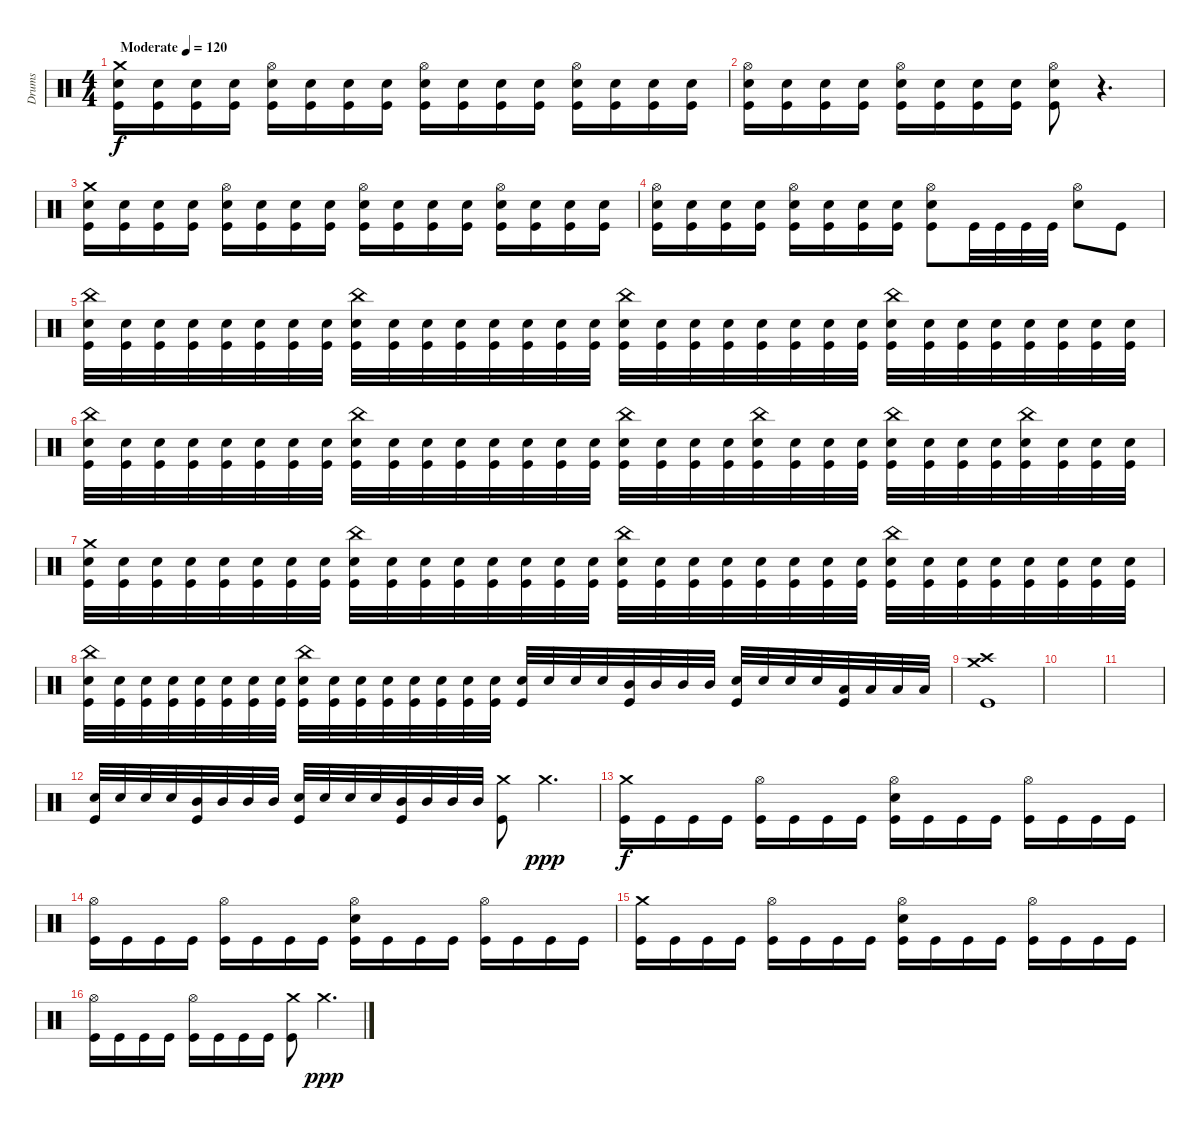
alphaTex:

\track ("Drums" "Drums") {instrument percussion}
\staff {score}
\articulation defaults
\ts (4 4)
\tempo (120 "Moderate")
\clef neutral
\ks c
("Snare (hit) 2" "Kick (hit)" "Crash medium (hit)").16{dy f} ("Snare (hit) 2" "Kick (hit)").16 ("Snare (hit) 2" "Kick (hit)").16 ("Snare (hit) 2" "Kick (hit)").16 ("Snare (hit) 2" "Kick (hit)" "Hi-Hat (open)").16 ("Snare (hit) 2" "Kick (hit)").16 ("Snare (hit) 2" "Kick (hit)").16 ("Snare (hit) 2" "Kick (hit)").16 ("Snare (hit) 2" "Kick (hit)" "Hi-Hat (open)").16 ("Snare (hit) 2" "Kick (hit)").16 ("Snare (hit) 2" "Kick (hit)").16 ("Snare (hit) 2" "Kick (hit)").16 ("Snare (hit) 2" "Kick (hit)" "Hi-Hat (open)").16 ("Snare (hit) 2" "Kick (hit)").16 ("Snare (hit) 2" "Kick (hit)").16 ("Snare (hit) 2" "Kick (hit)").16 |
("Snare (hit) 2" "Kick (hit)" "Hi-Hat (open)").16 ("Snare (hit) 2" "Kick (hit)").16 ("Snare (hit) 2" "Kick (hit)").16 ("Snare (hit) 2" "Kick (hit)").16 ("Snare (hit) 2" "Kick (hit)" "Hi-Hat (open)").16 ("Snare (hit) 2" "Kick (hit)").16 ("Snare (hit) 2" "Kick (hit)").16 ("Snare (hit) 2" "Kick (hit)").16 ("Snare (hit) 2" "Kick (hit)" "Hi-Hat (open)").8 r.4{d} |
("Snare (hit) 2" "Kick (hit)" "Crash medium (hit)").16 ("Snare (hit) 2" "Kick (hit)").16 ("Snare (hit) 2" "Kick (hit)").16 ("Snare (hit) 2" "Kick (hit)").16 ("Snare (hit) 2" "Kick (hit)" "Hi-Hat (open)").16 ("Snare (hit) 2" "Kick (hit)").16 ("Snare (hit) 2" "Kick (hit)").16 ("Snare (hit) 2" "Kick (hit)").16 ("Snare (hit) 2" "Kick (hit)" "Hi-Hat (open)").16 ("Snare (hit) 2" "Kick (hit)").16 ("Snare (hit) 2" "Kick (hit)").16 ("Snare (hit) 2" "Kick (hit)").16 ("Snare (hit) 2" "Kick (hit)" "Hi-Hat (open)").16 ("Snare (hit) 2" "Kick (hit)").16 ("Snare (hit) 2" "Kick (hit)").16 ("Snare (hit) 2" "Kick (hit)").16 |
("Snare (hit) 2" "Kick (hit)" "Hi-Hat (open)").16 ("Snare (hit) 2" "Kick (hit)").16 ("Snare (hit) 2" "Kick (hit)").16 ("Snare (hit) 2" "Kick (hit)").16 ("Snare (hit) 2" "Kick (hit)" "Hi-Hat (open)").16 ("Snare (hit) 2" "Kick (hit)").16 ("Snare (hit) 2" "Kick (hit)").16 ("Snare (hit) 2" "Kick (hit)").16 ("Snare (hit) 2" "Kick (hit)" "Hi-Hat (open)").8 "Kick (hit)".32 "Kick (hit)".32 "Kick (hit)".32 "Kick (hit)".32 ("Snare (hit) 2" "Hi-Hat (open)").8 "Kick (hit)".8 |
("Snare (hit) 2" "Kick (hit)" "China (hit)").32 ("Snare (hit) 2" "Kick (hit)").32 ("Kick (hit)" "Snare (hit) 2").32 ("Snare (hit) 2" "Kick (hit)").32 ("Snare (hit) 2" "Kick (hit)").32 ("Snare (hit) 2" "Kick (hit)").32 ("Snare (hit) 2" "Kick (hit)").32 ("Snare (hit) 2" "Kick (hit)").32 ("Snare (hit) 2" "Kick (hit)" "China (hit)").32 ("Snare (hit) 2" "Kick (hit)").32 ("Snare (hit) 2" "Kick (hit)").32 ("Snare (hit) 2" "Kick (hit)").32 ("Snare (hit) 2" "Kick (hit)").32 ("Snare (hit) 2" "Kick (hit)").32 ("Snare (hit) 2" "Kick (hit)").32 ("Snare (hit) 2" "Kick (hit)").32 ("Snare (hit) 2" "Kick (hit)" "China (hit)").32 ("Snare (hit) 2" "Kick (hit)").32 ("Snare (hit) 2" "Kick (hit)").32 ("Snare (hit) 2" "Kick (hit)").32 ("Snare (hit) 2" "Kick (hit)").32 ("Snare (hit) 2" "Kick (hit)").32 ("Snare (hit) 2" "Kick (hit)").32 ("Snare (hit) 2" "Kick (hit)").32 ("Snare (hit) 2" "Kick (hit)" "China (hit)").32 ("Snare (hit) 2" "Kick (hit)").32 ("Snare (hit) 2" "Kick (hit)").32 ("Snare (hit) 2" "Kick (hit)").32 ("Snare (hit) 2" "Kick (hit)").32 ("Snare (hit) 2" "Kick (hit)").32 ("Snare (hit) 2" "Kick (hit)").32 ("Snare (hit) 2" "Kick (hit)").32 |
("Snare (hit) 2" "Kick (hit)" "China (hit)").32 ("Snare (hit) 2" "Kick (hit)").32 ("Snare (hit) 2" "Kick (hit)").32 ("Snare (hit) 2" "Kick (hit)").32 ("Snare (hit) 2" "Kick (hit)").32 ("Snare (hit) 2" "Kick (hit)").32 ("Snare (hit) 2" "Kick (hit)").32 ("Snare (hit) 2" "Kick (hit)").32 ("Snare (hit) 2" "Kick (hit)" "China (hit)").32 ("Snare (hit) 2" "Kick (hit)").32 ("Snare (hit) 2" "Kick (hit)").32 ("Snare (hit) 2" "Kick (hit)").32 ("Snare (hit) 2" "Kick (hit)").32 ("Snare (hit) 2" "Kick (hit)").32 ("Snare (hit) 2" "Kick (hit)").32 ("Snare (hit) 2" "Kick (hit)").32 ("Snare (hit) 2" "Kick (hit)" "China (hit)").32 ("Snare (hit) 2" "Kick (hit)").32 ("Snare (hit) 2" "Kick (hit)").32 ("Snare (hit) 2" "Kick (hit)").32 ("Snare (hit) 2" "Kick (hit)" "China (hit)").32 ("Snare (hit) 2" "Kick (hit)").32 ("Snare (hit) 2" "Kick (hit)").32 ("Snare (hit) 2" "Kick (hit)").32 ("Snare (hit) 2" "Kick (hit)" "China (hit)").32 ("Snare (hit) 2" "Kick (hit)").32 ("Snare (hit) 2" "Kick (hit)").32 ("Snare (hit) 2" "Kick (hit)").32 ("Snare (hit) 2" "Kick (hit)" "China (hit)").32 ("Snare (hit) 2" "Kick (hit)").32 ("Snare (hit) 2" "Kick (hit)").32 ("Snare (hit) 2" "Kick (hit)").32 |
("Snare (hit) 2" "Kick (hit)" "Crash medium (hit)").32 ("Snare (hit) 2" "Kick (hit)").32 ("Snare (hit) 2" "Kick (hit)").32 ("Snare (hit) 2" "Kick (hit)").32 ("Snare (hit) 2" "Kick (hit)").32 ("Snare (hit) 2" "Kick (hit)").32 ("Snare (hit) 2" "Kick (hit)").32 ("Snare (hit) 2" "Kick (hit)").32 ("Snare (hit) 2" "Kick (hit)" "China (hit)").32 ("Snare (hit) 2" "Kick (hit)").32 ("Snare (hit) 2" "Kick (hit)").32 ("Snare (hit) 2" "Kick (hit)").32 ("Snare (hit) 2" "Kick (hit)").32 ("Snare (hit) 2" "Kick (hit)").32 ("Snare (hit) 2" "Kick (hit)").32 ("Snare (hit) 2" "Kick (hit)").32 ("Snare (hit) 2" "Kick (hit)" "China (hit)").32 ("Snare (hit) 2" "Kick (hit)").32 ("Snare (hit) 2" "Kick (hit)").32 ("Snare (hit) 2" "Kick (hit)").32 ("Snare (hit) 2" "Kick (hit)").32 ("Snare (hit) 2" "Kick (hit)").32 ("Snare (hit) 2" "Kick (hit)").32 ("Snare (hit) 2" "Kick (hit)").32 ("Snare (hit) 2" "Kick (hit)" "China (hit)").32 ("Snare (hit) 2" "Kick (hit)").32 ("Snare (hit) 2" "Kick (hit)").32 ("Snare (hit) 2" "Kick (hit)").32 ("Snare (hit) 2" "Kick (hit)").32 ("Snare (hit) 2" "Kick (hit)").32 ("Snare (hit) 2" "Kick (hit)").32 ("Snare (hit) 2" "Kick (hit)").32 |
("Snare (hit) 2" "Kick (hit)" "China (hit)").32 ("Snare (hit) 2" "Kick (hit)").32 ("Snare (hit) 2" "Kick (hit)").32 ("Snare (hit) 2" "Kick (hit)").32 ("Snare (hit) 2" "Kick (hit)").32 ("Snare (hit) 2" "Kick (hit)").32 ("Snare (hit) 2" "Kick (hit)").32 ("Snare (hit) 2" "Kick (hit)").32 ("Snare (hit) 2" "Kick (hit)" "China (hit)").32 ("Snare (hit) 2" "Kick (hit)").32 ("Snare (hit) 2" "Kick (hit)").32 ("Snare (hit) 2" "Kick (hit)").32 ("Snare (hit) 2" "Kick (hit)").32 ("Snare (hit) 2" "Kick (hit)").32 ("Snare (hit) 2" "Kick (hit)").32 ("Snare (hit) 2" "Kick (hit)").32 ("Snare (hit) 2" "Kick (hit)").32 "Snare (hit) 2".32 "Snare (hit) 2".32 "Snare (hit) 2".32 ("Mid Tom (hit)" "Kick (hit)").32 "Mid Tom (hit)".32 "Mid Tom (hit)".32 "Mid Tom (hit)".32 ("Snare (hit) 2" "Kick (hit)").32 "Snare (hit) 2".32 "Snare (hit) 2".32 "Snare (hit) 2".32 ("Low Tom (hit)" "Kick (hit)").32 "Low Tom (hit)".32 "Low Tom (hit)".32 "Low Tom (hit)".32 |
("Kick (hit)" "Crash medium (hit)" "Crash high (hit)").1 |
|
|
("Snare (hit) 2" "Kick (hit)").32 "Snare (hit) 2".32 "Snare (hit) 2".32 "Snare (hit) 2".32 ("Mid Tom (hit)" "Kick (hit)").32 "Mid Tom (hit)".32 "Mid Tom (hit)".32 "Mid Tom (hit)".32 ("Snare (hit) 2" "Kick (hit)").32 "Snare (hit) 2".32 "Snare (hit) 2".32 "Snare (hit) 2".32 ("Mid Tom (hit)" "Kick (hit)").32 "Mid Tom (hit)".32 "Mid Tom (hit)".32 "Mid Tom (hit)".32 ("Kick (hit)" "Crash medium (hit)").8 "Crash medium (hit)".4{d dy ppp} |
("Kick (hit)" "Crash medium (hit)").16{dy f} "Kick (hit)".16 "Kick (hit)".16 "Kick (hit)".16 ("Kick (hit)" "Hi-Hat (open)").16 "Kick (hit)".16 "Kick (hit)".16 "Kick (hit)".16 ("Kick (hit)" "Hi-Hat (open)" "Snare (hit) 2").16 "Kick (hit)".16 "Kick (hit)".16 "Kick (hit)".16 ("Kick (hit)" "Hi-Hat (open)").16 "Kick (hit)".16 "Kick (hit)".16 "Kick (hit)".16 |
("Kick (hit)" "Hi-Hat (open)").16 "Kick (hit)".16 "Kick (hit)".16 "Kick (hit)".16 ("Kick (hit)" "Hi-Hat (open)").16 "Kick (hit)".16 "Kick (hit)".16 "Kick (hit)".16 ("Kick (hit)" "Snare (hit) 2" "Hi-Hat (open)").16 "Kick (hit)".16 "Kick (hit)".16 "Kick (hit)".16 ("Kick (hit)" "Hi-Hat (open)").16 "Kick (hit)".16 "Kick (hit)".16 "Kick (hit)".16 |
("Crash medium (hit)" "Kick (hit)").16 "Kick (hit)".16 "Kick (hit)".16 "Kick (hit)".16 ("Kick (hit)" "Hi-Hat (open)").16 "Kick (hit)".16 "Kick (hit)".16 "Kick (hit)".16 ("Kick (hit)" "Hi-Hat (open)" "Snare (hit) 2").16 "Kick (hit)".16 "Kick (hit)".16 "Kick (hit)".16 ("Kick (hit)" "Hi-Hat (open)").16 "Kick (hit)".16 "Kick (hit)".16 "Kick (hit)".16 |
("Kick (hit)" "Hi-Hat (open)").16 "Kick (hit)".16 "Kick (hit)".16 "Kick (hit)".16 ("Kick (hit)" "Hi-Hat (open)").16 "Kick (hit)".16 "Kick (hit)".16 "Kick (hit)".16 ("Kick (hit)" "Crash medium (hit)").8 "Crash medium (hit)".4{d dy ppp}
